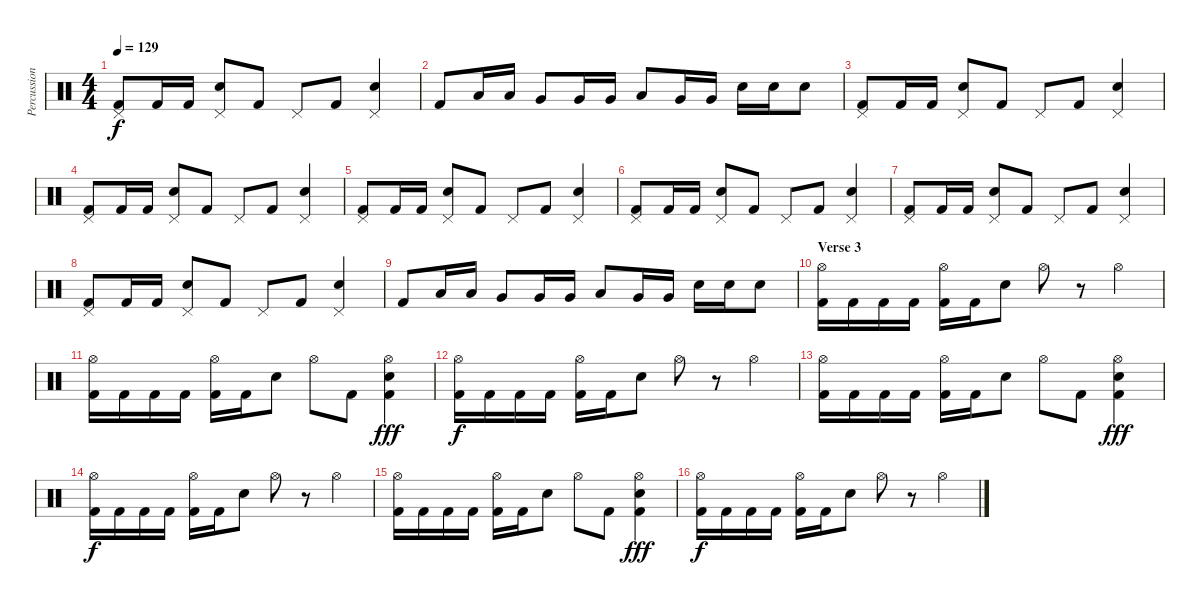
\track ("Percussion" "Percussion") {instrument percussion}
\staff {score}
\articulation defaults
\ts (4 4)
\tempo 129
\clef neutral
\ks c
("Pedal Hi-Hat (hit)" "Kick (hit) 2").8{dy f} "Kick (hit) 2".16 "Kick (hit) 2".16 ("Pedal Hi-Hat (hit)" "Electric Snare (hit)").8 "Kick (hit) 2".8 "Pedal Hi-Hat (hit)".8 "Kick (hit) 2".8 ("Pedal Hi-Hat (hit)" "Electric Snare (hit)").4 |
"Kick (hit) 2".8 "Low Floor Tom (hit)".16 "Low Floor Tom (hit)".16 "Very Low Tom (hit)".8 "Very Low Tom (hit)".16 "Very Low Tom (hit)".16 "Low Tom (hit)".8 "Very Low Tom (hit)".16 "Very Low Tom (hit)".16 "Electric Snare (hit)".16 "Electric Snare (hit)".16 "Electric Snare (hit)".8 |
("Pedal Hi-Hat (hit)" "Kick (hit) 2").8 "Kick (hit) 2".16 "Kick (hit) 2".16 ("Pedal Hi-Hat (hit)" "Electric Snare (hit)").8 "Kick (hit) 2".8 "Pedal Hi-Hat (hit)".8 "Kick (hit) 2".8 ("Pedal Hi-Hat (hit)" "Electric Snare (hit)").4 |
("Pedal Hi-Hat (hit)" "Kick (hit) 2").8 "Kick (hit) 2".16 "Kick (hit) 2".16 ("Pedal Hi-Hat (hit)" "Electric Snare (hit)").8 "Kick (hit) 2".8 "Pedal Hi-Hat (hit)".8 "Kick (hit) 2".8 ("Pedal Hi-Hat (hit)" "Electric Snare (hit)").4 |
("Pedal Hi-Hat (hit)" "Kick (hit) 2").8 "Kick (hit) 2".16 "Kick (hit) 2".16 ("Pedal Hi-Hat (hit)" "Electric Snare (hit)").8 "Kick (hit) 2".8 "Pedal Hi-Hat (hit)".8 "Kick (hit) 2".8 ("Pedal Hi-Hat (hit)" "Electric Snare (hit)").4 |
("Pedal Hi-Hat (hit)" "Kick (hit) 2").8 "Kick (hit) 2".16 "Kick (hit) 2".16 ("Pedal Hi-Hat (hit)" "Electric Snare (hit)").8 "Kick (hit) 2".8 "Pedal Hi-Hat (hit)".8 "Kick (hit) 2".8 ("Pedal Hi-Hat (hit)" "Electric Snare (hit)").4 |
("Pedal Hi-Hat (hit)" "Kick (hit) 2").8 "Kick (hit) 2".16 "Kick (hit) 2".16 ("Pedal Hi-Hat (hit)" "Electric Snare (hit)").8 "Kick (hit) 2".8 "Pedal Hi-Hat (hit)".8 "Kick (hit) 2".8 ("Pedal Hi-Hat (hit)" "Electric Snare (hit)").4 |
("Pedal Hi-Hat (hit)" "Kick (hit) 2").8 "Kick (hit) 2".16 "Kick (hit) 2".16 ("Pedal Hi-Hat (hit)" "Electric Snare (hit)").8 "Kick (hit) 2".8 "Pedal Hi-Hat (hit)".8 "Kick (hit) 2".8 ("Pedal Hi-Hat (hit)" "Electric Snare (hit)").4 |
"Kick (hit) 2".8 "Low Floor Tom (hit)".16 "Low Floor Tom (hit)".16 "Very Low Tom (hit)".8 "Very Low Tom (hit)".16 "Very Low Tom (hit)".16 "Low Tom (hit)".8 "Very Low Tom (hit)".16 "Very Low Tom (hit)".16 "Electric Snare (hit)".16 "Electric Snare (hit)".16 "Electric Snare (hit)".8 |
\section ("" "Verse 3")
("Hi-Hat (open)" "Kick (hit) 2").16 "Kick (hit) 2".16 "Kick (hit) 2".16 "Kick (hit) 2".16 ("Hi-Hat (open)" "Kick (hit) 2").16 "Kick (hit) 2".16 "Electric Snare (hit)".8 "Hi-Hat (open)".8 r.8 "Hi-Hat (open)".4 |
("Hi-Hat (open)" "Kick (hit) 2").16 "Kick (hit) 2".16 "Kick (hit) 2".16 "Kick (hit) 2".16 ("Hi-Hat (open)" "Kick (hit) 2").16 "Kick (hit) 2".16 "Electric Snare (hit)".8 "Hi-Hat (open)".8 "Kick (hit) 2".8 ("Hi-Hat (open)" "Electric Snare (hit)" "Kick (hit) 2").4{dy fff} |
("Hi-Hat (open)" "Kick (hit) 2").16{dy f} "Kick (hit) 2".16 "Kick (hit) 2".16 "Kick (hit) 2".16 ("Hi-Hat (open)" "Kick (hit) 2").16 "Kick (hit) 2".16 "Electric Snare (hit)".8 "Hi-Hat (open)".8 r.8 "Hi-Hat (open)".4 |
("Hi-Hat (open)" "Kick (hit) 2").16 "Kick (hit) 2".16 "Kick (hit) 2".16 "Kick (hit) 2".16 ("Hi-Hat (open)" "Kick (hit) 2").16 "Kick (hit) 2".16 "Electric Snare (hit)".8 "Hi-Hat (open)".8 "Kick (hit) 2".8 ("Hi-Hat (open)" "Electric Snare (hit)" "Kick (hit) 2").4{dy fff} |
("Hi-Hat (open)" "Kick (hit) 2").16{dy f} "Kick (hit) 2".16 "Kick (hit) 2".16 "Kick (hit) 2".16 ("Hi-Hat (open)" "Kick (hit) 2").16 "Kick (hit) 2".16 "Electric Snare (hit)".8 "Hi-Hat (open)".8 r.8 "Hi-Hat (open)".4 |
("Hi-Hat (open)" "Kick (hit) 2").16 "Kick (hit) 2".16 "Kick (hit) 2".16 "Kick (hit) 2".16 ("Hi-Hat (open)" "Kick (hit) 2").16 "Kick (hit) 2".16 "Electric Snare (hit)".8 "Hi-Hat (open)".8 "Kick (hit) 2".8 ("Hi-Hat (open)" "Electric Snare (hit)" "Kick (hit) 2").4{dy fff} |
("Hi-Hat (open)" "Kick (hit) 2").16{dy f} "Kick (hit) 2".16 "Kick (hit) 2".16 "Kick (hit) 2".16 ("Hi-Hat (open)" "Kick (hit) 2").16 "Kick (hit) 2".16 "Electric Snare (hit)".8 "Hi-Hat (open)".8 r.8 "Hi-Hat (open)".4
